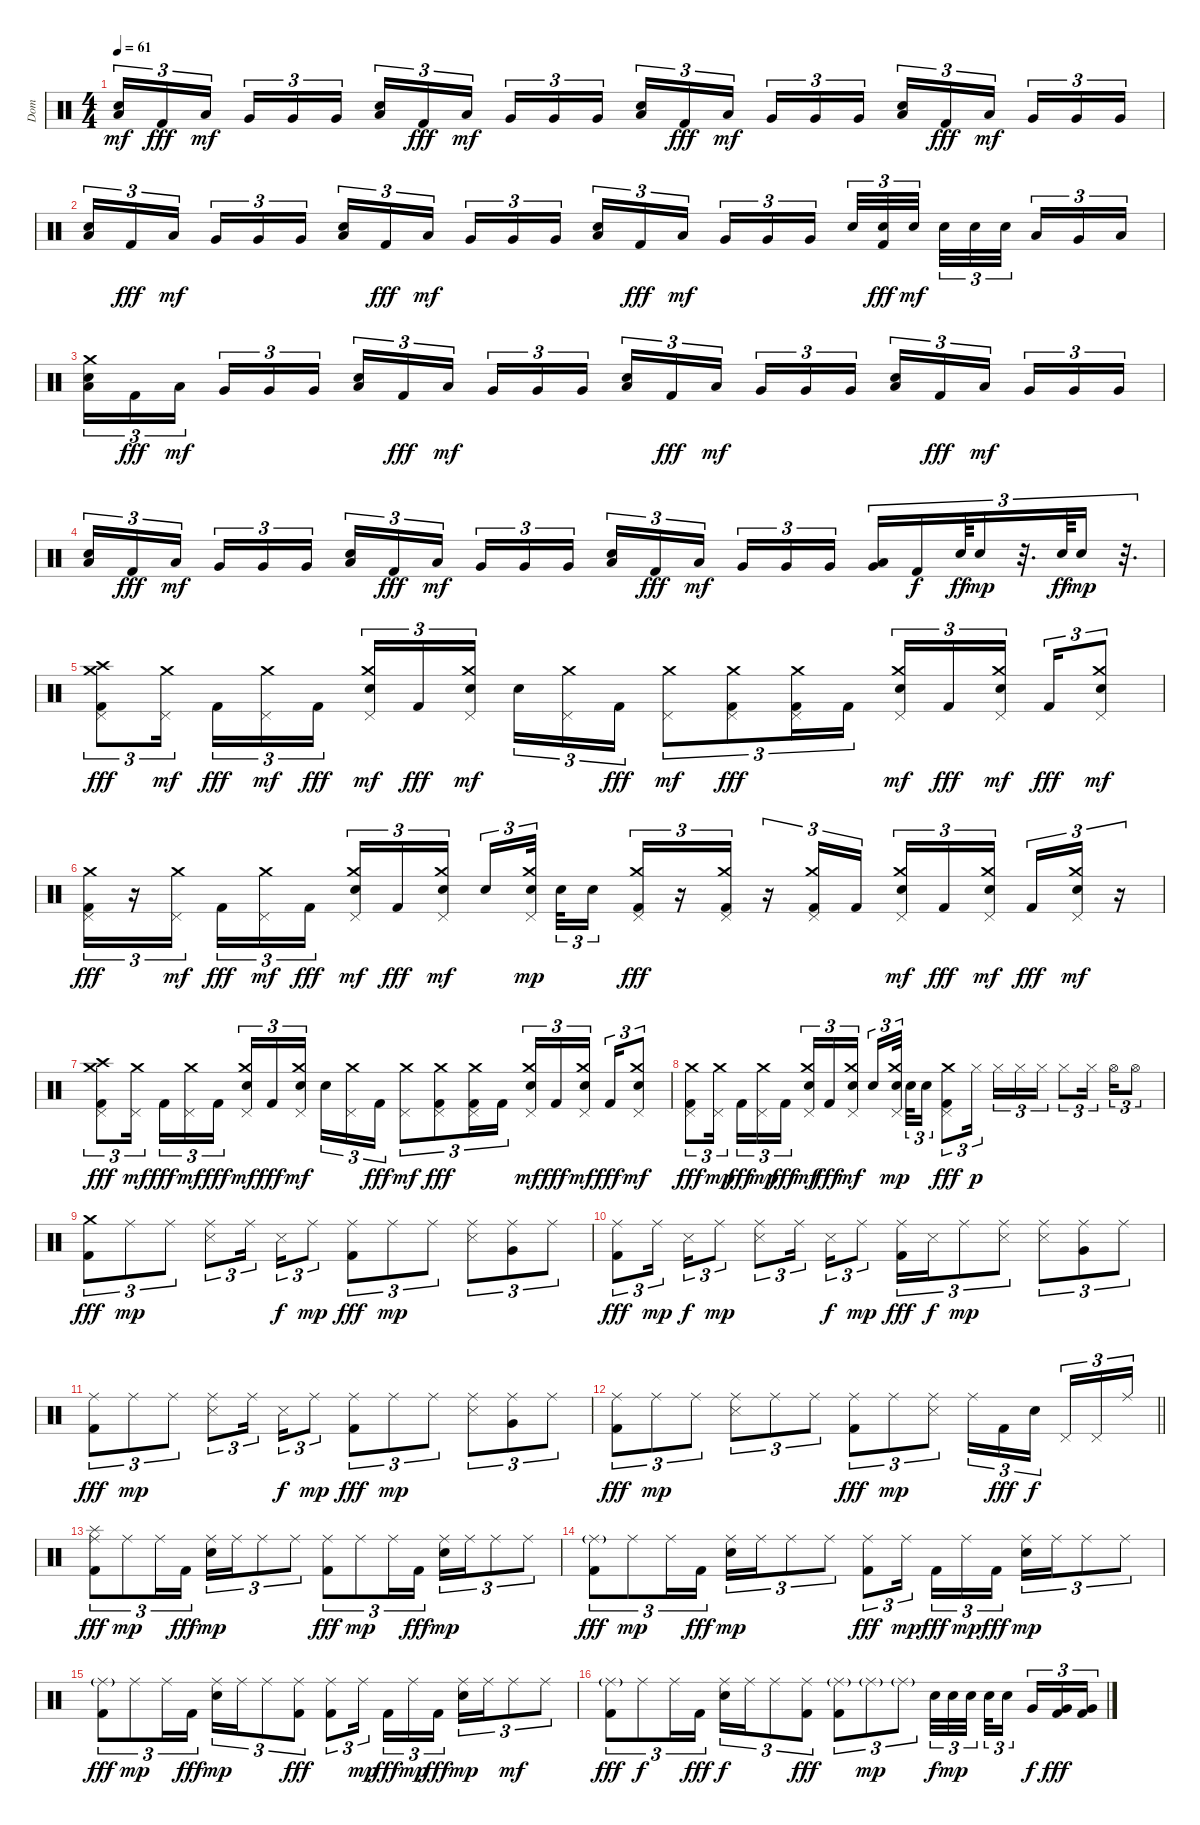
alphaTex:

\track ("Dom" "Dom") {instrument percussion}
\staff {score}
\articulation defaults
\ts (4 4)
\tempo 61
\clef neutral
\ks c
("Electric Snare (hit)" "Low Floor Tom (hit)").16{tu (3 2) dy mf} "Kick (hit) 2".16{tu (3 2) dy fff} "Low Floor Tom (hit)".16{tu (3 2) dy mf beam splitsecondary} "Very Low Tom (hit)".16{tu (3 2)} "Very Low Tom (hit)".16{tu (3 2)} "Very Low Tom (hit)".16{tu (3 2)} ("Electric Snare (hit)" "Low Floor Tom (hit)").16{tu (3 2)} "Kick (hit) 2".16{tu (3 2) dy fff} "Low Floor Tom (hit)".16{tu (3 2) dy mf beam splitsecondary} "Very Low Tom (hit)".16{tu (3 2)} "Very Low Tom (hit)".16{tu (3 2)} "Very Low Tom (hit)".16{tu (3 2)} ("Electric Snare (hit)" "Low Floor Tom (hit)").16{tu (3 2)} "Kick (hit) 2".16{tu (3 2) dy fff} "Low Floor Tom (hit)".16{tu (3 2) dy mf beam splitsecondary} "Very Low Tom (hit)".16{tu (3 2)} "Very Low Tom (hit)".16{tu (3 2)} "Very Low Tom (hit)".16{tu (3 2)} ("Electric Snare (hit)" "Low Floor Tom (hit)").16{tu (3 2)} "Kick (hit) 2".16{tu (3 2) dy fff} "Low Floor Tom (hit)".16{tu (3 2) dy mf beam splitsecondary} "Very Low Tom (hit)".16{tu (3 2)} "Very Low Tom (hit)".16{tu (3 2)} "Very Low Tom (hit)".16{tu (3 2)} |
("Electric Snare (hit)" "Low Floor Tom (hit)").16{tu (3 2)} "Kick (hit) 2".16{tu (3 2) dy fff} "Low Floor Tom (hit)".16{tu (3 2) dy mf beam splitsecondary} "Very Low Tom (hit)".16{tu (3 2)} "Very Low Tom (hit)".16{tu (3 2)} "Very Low Tom (hit)".16{tu (3 2)} ("Electric Snare (hit)" "Low Floor Tom (hit)").16{tu (3 2)} "Kick (hit) 2".16{tu (3 2) dy fff} "Low Floor Tom (hit)".16{tu (3 2) dy mf beam splitsecondary} "Very Low Tom (hit)".16{tu (3 2)} "Very Low Tom (hit)".16{tu (3 2)} "Very Low Tom (hit)".16{tu (3 2)} ("Electric Snare (hit)" "Low Floor Tom (hit)").16{tu (3 2)} "Kick (hit) 2".16{tu (3 2) dy fff} "Low Floor Tom (hit)".16{tu (3 2) dy mf beam splitsecondary} "Very Low Tom (hit)".16{tu (3 2)} "Very Low Tom (hit)".16{tu (3 2)} "Very Low Tom (hit)".16{tu (3 2)} "Electric Snare (hit)".32{tu (3 2)} ("Electric Snare (hit)" "Kick (hit) 2").32{tu (3 2) dy fff} "Electric Snare (hit)".32{tu (3 2) dy mf beam splitsecondary} "Electric Snare (hit)".32{tu (3 2)} "Electric Snare (hit)".32{tu (3 2)} "Electric Snare (hit)".32{tu (3 2) beam splitsecondary} "Low Tom (hit)".16{tu (3 2)} "Very Low Tom (hit)".16{tu (3 2)} "Low Floor Tom (hit)".16{tu (3 2)} |
("Crash medium (hit)" "Electric Snare (hit)" "Low Floor Tom (hit)").16{tu (3 2)} "Kick (hit) 2".16{tu (3 2) dy fff} "Low Floor Tom (hit)".16{tu (3 2) dy mf beam splitsecondary} "Very Low Tom (hit)".16{tu (3 2)} "Very Low Tom (hit)".16{tu (3 2)} "Very Low Tom (hit)".16{tu (3 2)} ("Electric Snare (hit)" "Low Floor Tom (hit)").16{tu (3 2)} "Kick (hit) 2".16{tu (3 2) dy fff} "Low Floor Tom (hit)".16{tu (3 2) dy mf beam splitsecondary} "Very Low Tom (hit)".16{tu (3 2)} "Very Low Tom (hit)".16{tu (3 2)} "Very Low Tom (hit)".16{tu (3 2)} ("Electric Snare (hit)" "Low Floor Tom (hit)").16{tu (3 2)} "Kick (hit) 2".16{tu (3 2) dy fff} "Low Floor Tom (hit)".16{tu (3 2) dy mf beam splitsecondary} "Very Low Tom (hit)".16{tu (3 2)} "Very Low Tom (hit)".16{tu (3 2)} "Very Low Tom (hit)".16{tu (3 2)} ("Electric Snare (hit)" "Low Floor Tom (hit)").16{tu (3 2)} "Kick (hit) 2".16{tu (3 2) dy fff} "Low Floor Tom (hit)".16{tu (3 2) dy mf beam splitsecondary} "Very Low Tom (hit)".16{tu (3 2)} "Very Low Tom (hit)".16{tu (3 2)} "Very Low Tom (hit)".16{tu (3 2)} |
("Electric Snare (hit)" "Low Floor Tom (hit)").16{tu (3 2)} "Kick (hit) 2".16{tu (3 2) dy fff} "Low Floor Tom (hit)".16{tu (3 2) dy mf beam splitsecondary} "Very Low Tom (hit)".16{tu (3 2)} "Very Low Tom (hit)".16{tu (3 2)} "Very Low Tom (hit)".16{tu (3 2)} ("Electric Snare (hit)" "Low Floor Tom (hit)").16{tu (3 2)} "Kick (hit) 2".16{tu (3 2) dy fff} "Low Floor Tom (hit)".16{tu (3 2) dy mf beam splitsecondary} "Very Low Tom (hit)".16{tu (3 2)} "Very Low Tom (hit)".16{tu (3 2)} "Very Low Tom (hit)".16{tu (3 2)} ("Electric Snare (hit)" "Low Floor Tom (hit)").16{tu (3 2)} "Kick (hit) 2".16{tu (3 2) dy fff} "Low Floor Tom (hit)".16{tu (3 2) dy mf beam splitsecondary} "Very Low Tom (hit)".16{tu (3 2)} "Very Low Tom (hit)".16{tu (3 2)} "Very Low Tom (hit)".16{tu (3 2)} ("Low Floor Tom (hit)" "Very Low Tom (hit)").16{tu (3 2)} "Kick (hit) 2".16{tu (3 2) dy f} "Electric Snare (hit)".64{tu (3 2) dy ff} "Electric Snare (hit)".16{tu (3 2) dy mp} r.32{d tu (3 2)} "Electric Snare (hit)".64{tu (3 2) dy ff} "Electric Snare (hit)".16{tu (3 2) dy mp} r.32{d tu (3 2)} |
("Crash high (hit)" "Pedal Hi-Hat (hit)" "Crash medium (hit)" "Kick (hit) 2").8{tu (3 2) dy fff} ("Pedal Hi-Hat (hit)" "Crash medium (hit)").16{tu (3 2) dy mf beam splitsecondary} "Kick (hit) 2".16{tu (3 2) dy fff} ("Pedal Hi-Hat (hit)" "Crash medium (hit)").16{tu (3 2) dy mf} "Kick (hit) 2".16{tu (3 2) dy fff} ("Pedal Hi-Hat (hit)" "Crash medium (hit)" "Electric Snare (hit)").16{tu (3 2) dy mf} "Kick (hit) 2".16{tu (3 2) dy fff} ("Pedal Hi-Hat (hit)" "Crash medium (hit)" "Electric Snare (hit)").16{tu (3 2) dy mf beam splitsecondary} "Electric Snare (hit)".16{tu (3 2)} ("Pedal Hi-Hat (hit)" "Crash medium (hit)").16{tu (3 2)} "Kick (hit) 2".16{tu (3 2) dy fff} ("Pedal Hi-Hat (hit)" "Crash medium (hit)").8{tu (3 2) dy mf} ("Pedal Hi-Hat (hit)" "Crash medium (hit)" "Kick (hit) 2").8{tu (3 2) dy fff} ("Pedal Hi-Hat (hit)" "Crash medium (hit)" "Kick (hit) 2").16{tu (3 2)} "Kick (hit) 2".16{tu (3 2)} ("Pedal Hi-Hat (hit)" "Crash medium (hit)" "Electric Snare (hit)").16{tu (3 2) dy mf} "Kick (hit) 2".16{tu (3 2) dy fff} ("Pedal Hi-Hat (hit)" "Crash medium (hit)" "Electric Snare (hit)").16{tu (3 2) dy mf beam splitsecondary} "Kick (hit) 2".16{tu (3 2) dy fff} ("Pedal Hi-Hat (hit)" "Crash medium (hit)" "Electric Snare (hit)").8{tu (3 2) dy mf} |
("Pedal Hi-Hat (hit)" "Crash medium (hit)" "Kick (hit) 2").16{tu (3 2) dy fff} r.16{tu (3 2)} ("Pedal Hi-Hat (hit)" "Crash medium (hit)").16{tu (3 2) dy mf beam splitsecondary} "Kick (hit) 2".16{tu (3 2) dy fff} ("Pedal Hi-Hat (hit)" "Crash medium (hit)").16{tu (3 2) dy mf} "Kick (hit) 2".16{tu (3 2) dy fff} ("Pedal Hi-Hat (hit)" "Crash medium (hit)" "Electric Snare (hit)").16{tu (3 2) dy mf} "Kick (hit) 2".16{tu (3 2) dy fff} ("Pedal Hi-Hat (hit)" "Crash medium (hit)" "Electric Snare (hit)").16{tu (3 2) dy mf beam splitsecondary} "Electric Snare (hit)".16{tu (3 2)} ("Pedal Hi-Hat (hit)" "Crash medium (hit)" "Electric Snare (hit)").32{tu (3 2) dy mp beam splitsecondary} "Electric Snare (hit)".32{tu (3 2)} "Electric Snare (hit)".16{tu (3 2)} ("Pedal Hi-Hat (hit)" "Crash medium (hit)" "Kick (hit) 2").16{tu (3 2) dy fff} r.16{tu (3 2)} ("Pedal Hi-Hat (hit)" "Crash medium (hit)" "Kick (hit) 2").16{tu (3 2)} r.16{tu (3 2)} ("Pedal Hi-Hat (hit)" "Crash medium (hit)" "Kick (hit) 2").16{tu (3 2)} "Kick (hit) 2".16{tu (3 2)} ("Pedal Hi-Hat (hit)" "Crash medium (hit)" "Electric Snare (hit)").16{tu (3 2) dy mf} "Kick (hit) 2".16{tu (3 2) dy fff} ("Pedal Hi-Hat (hit)" "Crash medium (hit)" "Electric Snare (hit)").16{tu (3 2) dy mf beam splitsecondary} "Kick (hit) 2".16{tu (3 2) dy fff} ("Pedal Hi-Hat (hit)" "Crash medium (hit)" "Electric Snare (hit)").16{tu (3 2) dy mf} r.16{tu (3 2)} |
("Crash high (hit)" "Pedal Hi-Hat (hit)" "Crash medium (hit)" "Kick (hit) 2").8{tu (3 2) dy fff} ("Pedal Hi-Hat (hit)" "Crash medium (hit)").16{tu (3 2) dy mf beam splitsecondary} "Kick (hit) 2".16{tu (3 2) dy fff} ("Pedal Hi-Hat (hit)" "Crash medium (hit)").16{tu (3 2) dy mf} "Kick (hit) 2".16{tu (3 2) dy fff} ("Pedal Hi-Hat (hit)" "Crash medium (hit)" "Electric Snare (hit)").16{tu (3 2) dy mf} "Kick (hit) 2".16{tu (3 2) dy fff} ("Pedal Hi-Hat (hit)" "Crash medium (hit)" "Electric Snare (hit)").16{tu (3 2) dy mf beam splitsecondary} "Electric Snare (hit)".16{tu (3 2)} ("Pedal Hi-Hat (hit)" "Crash medium (hit)").16{tu (3 2)} "Kick (hit) 2".16{tu (3 2) dy fff} ("Pedal Hi-Hat (hit)" "Crash medium (hit)").8{tu (3 2) dy mf} ("Pedal Hi-Hat (hit)" "Crash medium (hit)" "Kick (hit) 2").8{tu (3 2) dy fff} ("Pedal Hi-Hat (hit)" "Crash medium (hit)" "Kick (hit) 2").16{tu (3 2)} "Kick (hit) 2".16{tu (3 2)} ("Pedal Hi-Hat (hit)" "Crash medium (hit)" "Electric Snare (hit)").16{tu (3 2) dy mf} "Kick (hit) 2".16{tu (3 2) dy fff} ("Pedal Hi-Hat (hit)" "Crash medium (hit)" "Electric Snare (hit)").16{tu (3 2) dy mf beam splitsecondary} "Kick (hit) 2".16{tu (3 2) dy fff} ("Pedal Hi-Hat (hit)" "Crash medium (hit)" "Electric Snare (hit)").8{tu (3 2) dy mf} |
("Pedal Hi-Hat (hit)" "Crash medium (hit)" "Kick (hit) 2").8{tu (3 2) dy fff} ("Pedal Hi-Hat (hit)" "Crash medium (hit)").16{tu (3 2) dy mp beam splitsecondary} "Kick (hit) 2".16{tu (3 2) dy fff} ("Pedal Hi-Hat (hit)" "Crash medium (hit)").16{tu (3 2) dy mp} "Kick (hit) 2".16{tu (3 2) dy fff} ("Pedal Hi-Hat (hit)" "Crash medium (hit)" "Electric Snare (hit)").16{tu (3 2) dy mf} "Kick (hit) 2".16{tu (3 2) dy fff} ("Pedal Hi-Hat (hit)" "Crash medium (hit)" "Electric Snare (hit)").16{tu (3 2) dy mf beam splitsecondary} "Electric Snare (hit)".16{tu (3 2)} ("Pedal Hi-Hat (hit)" "Crash medium (hit)" "Electric Snare (hit)").32{tu (3 2) dy mp beam splitsecondary} "Electric Snare (hit)".32{tu (3 2)} "Electric Snare (hit)".16{tu (3 2)} ("Pedal Hi-Hat (hit)" "Crash medium (hit)" "Kick (hit) 2").8{tu (3 2) dy fff} "Hi-Hat (closed)".16{tu (3 2) dy p beam splitsecondary} "Hi-Hat (closed)".16{tu (3 2)} "Hi-Hat (closed)".16{tu (3 2)} "Hi-Hat (closed)".16{tu (3 2)} "Hi-Hat (closed)".8{tu (3 2)} "Hi-Hat (closed)".16{tu (3 2) beam splitsecondary} "Hi-Hat (open)".16{tu (3 2)} "Hi-Hat (open)".8{tu (3 2)} |
("Crash medium (hit)" "Kick (hit) 2").8{tu (3 2) dy fff} "Ride (middle)".8{tu (3 2) dy mp} "Ride (middle)".8{tu (3 2)} ("Ride (middle)" "Snare (side stick) 3").8{tu (3 2)} "Ride (middle)".16{tu (3 2) beam splitsecondary} "Snare (side stick) 3".16{tu (3 2) dy f} "Ride (middle)".8{tu (3 2) dy mp} ("Ride (middle)" "Kick (hit) 2").8{tu (3 2) dy fff} "Ride (middle)".8{tu (3 2) dy mp} "Ride (middle)".8{tu (3 2)} ("Ride (middle)" "Snare (side stick) 3").8{tu (3 2)} ("Ride (middle)" "Very Low Tom (hit)").8{tu (3 2)} "Ride (middle)".8{tu (3 2)} |
("Ride (middle)" "Kick (hit) 2").8{tu (3 2) dy fff} "Ride (middle)".16{tu (3 2) dy mp beam splitsecondary} "Snare (side stick) 3".16{tu (3 2) dy f} "Ride (middle)".8{tu (3 2) dy mp} ("Ride (middle)" "Snare (side stick) 3").8{tu (3 2)} "Ride (middle)".16{tu (3 2) beam splitsecondary} "Snare (side stick) 3".16{tu (3 2) dy f} "Ride (middle)".8{tu (3 2) dy mp} ("Ride (middle)" "Kick (hit) 2").16{tu (3 2) dy fff} "Snare (side stick) 3".16{tu (3 2) dy f} "Ride (middle)".8{tu (3 2) dy mp} ("Ride (middle)" "Snare (side stick) 3").8{tu (3 2)} ("Ride (middle)" "Snare (side stick) 3").8{tu (3 2)} ("Ride (middle)" "Very Low Tom (hit)").8{tu (3 2)} "Ride (middle)".8{tu (3 2)} |
("Ride (middle)" "Kick (hit) 2").8{tu (3 2) dy fff} "Ride (middle)".8{tu (3 2) dy mp} "Ride (middle)".8{tu (3 2)} ("Ride (middle)" "Snare (side stick) 3").8{tu (3 2)} "Ride (middle)".16{tu (3 2) beam splitsecondary} "Snare (side stick) 3".16{tu (3 2) dy f} "Ride (middle)".8{tu (3 2) dy mp} ("Ride (middle)" "Kick (hit) 2").8{tu (3 2) dy fff} "Ride (middle)".8{tu (3 2) dy mp} "Ride (middle)".8{tu (3 2)} ("Ride (middle)" "Snare (side stick) 3").8{tu (3 2)} ("Ride (middle)" "Very Low Tom (hit)").8{tu (3 2)} "Ride (middle)".8{tu (3 2)} |
\barLineRight lightlight
("Ride (middle)" "Kick (hit) 2").8{tu (3 2) dy fff} "Ride (middle)".8{tu (3 2) dy mp} "Ride (middle)".8{tu (3 2)} ("Ride (middle)" "Snare (side stick) 3").8{tu (3 2)} "Ride (middle)".8{tu (3 2)} "Ride (middle)".8{tu (3 2)} ("Ride (middle)" "Kick (hit) 2").8{tu (3 2) dy fff} "Ride (middle)".8{tu (3 2) dy mp} ("Ride (middle)" "Snare (side stick) 3").8{tu (3 2)} "Ride (middle)".16{tu (3 2)} "Kick (hit) 2".16{tu (3 2) dy fff} "Electric Snare (hit)".16{tu (3 2) dy f beam splitsecondary} "Pedal Hi-Hat (hit)".16{tu (3 2)} "Pedal Hi-Hat (hit)".16{tu (3 2)} "Ride (middle)".16{tu (3 2)} |
("Splash (hit)" "Ride (middle)" "Kick (hit) 2").8{tu (3 2) dy fff} "Ride (middle)".8{tu (3 2) dy mp} "Ride (middle)".16{tu (3 2)} "Kick (hit) 2".16{tu (3 2) dy fff} ("Ride (middle)" "Electric Snare (hit)").16{tu (3 2) dy mp} "Ride (middle)".16{tu (3 2)} "Ride (middle)".8{tu (3 2)} "Ride (middle)".8{tu (3 2)} ("Ride (middle)" "Kick (hit) 2").8{tu (3 2) dy fff} "Ride (middle)".8{tu (3 2) dy mp} "Ride (middle)".16{tu (3 2)} "Kick (hit) 2".16{tu (3 2) dy fff} ("Ride (middle)" "Electric Snare (hit)").16{tu (3 2) dy mp} "Ride (middle)".16{tu (3 2)} "Ride (middle)".8{tu (3 2)} "Ride (middle)".8{tu (3 2)} |
("Ride (middle)"{g} "Kick (hit) 2").8{tu (3 2) dy fff} "Ride (middle)".8{tu (3 2) dy mp} "Ride (middle)".16{tu (3 2)} "Kick (hit) 2".16{tu (3 2) dy fff} ("Ride (middle)" "Electric Snare (hit)").16{tu (3 2) dy mp} "Ride (middle)".16{tu (3 2)} "Ride (middle)".8{tu (3 2)} "Ride (middle)".8{tu (3 2)} ("Ride (middle)" "Kick (hit) 2").8{tu (3 2) dy fff} "Ride (middle)".16{tu (3 2) dy mp beam splitsecondary} "Kick (hit) 2".16{tu (3 2) dy fff} "Ride (middle)".16{tu (3 2) dy mp} "Kick (hit) 2".16{tu (3 2) dy fff} ("Ride (middle)" "Electric Snare (hit)").16{tu (3 2) dy mp} "Ride (middle)".16{tu (3 2)} "Ride (middle)".8{tu (3 2)} "Ride (middle)".8{tu (3 2)} |
("Ride (middle)"{g} "Kick (hit) 2").8{tu (3 2) dy fff} "Ride (middle)".8{tu (3 2) dy mp} "Ride (middle)".16{tu (3 2)} "Kick (hit) 2".16{tu (3 2) dy fff} ("Ride (middle)" "Electric Snare (hit)").16{tu (3 2) dy mp} "Ride (middle)".16{tu (3 2)} "Ride (middle)".8{tu (3 2)} ("Ride (middle)" "Kick (hit) 2").8{tu (3 2) dy fff} ("Ride (middle)" "Kick (hit) 2").8{tu (3 2)} "Ride (middle)".16{tu (3 2) dy mp beam splitsecondary} "Kick (hit) 2".16{tu (3 2) dy fff} "Ride (middle)".16{tu (3 2) dy mp} "Kick (hit) 2".16{tu (3 2) dy fff} ("Ride (middle)" "Electric Snare (hit)").16{tu (3 2) dy mp} "Ride (middle)".16{tu (3 2)} "Ride (middle)".8{tu (3 2) dy mf} "Ride (middle)".8{tu (3 2)} |
("Ride (middle)"{g} "Kick (hit) 2").8{tu (3 2) dy fff} "Ride (middle)".8{tu (3 2) dy f} "Ride (middle)".16{tu (3 2)} "Kick (hit) 2".16{tu (3 2) dy fff} ("Ride (middle)" "Electric Snare (hit)").16{tu (3 2) dy f} "Ride (middle)".16{tu (3 2)} "Ride (middle)".8{tu (3 2)} ("Ride (middle)" "Kick (hit) 2").8{tu (3 2) dy fff} ("Ride (middle)"{g} "Kick (hit) 2").8{tu (3 2)} "Ride (middle)"{g}.8{tu (3 2) dy mp} "Ride (middle)"{g}.8{tu (3 2)} "Electric Snare (hit)".32{tu (3 2) dy f} "Electric Snare (hit)".32{tu (3 2) dy mp} "Electric Snare (hit)".32{tu (3 2) beam splitsecondary} "Electric Snare (hit)".32{tu (3 2)} "Electric Snare (hit)".16{tu (3 2) beam splitsecondary} "Very Low Tom (hit)".16{tu (3 2) dy f} ("Very Low Tom (hit)" "Kick (hit) 2").16{tu (3 2) dy fff} ("Very Low Tom (hit)" "Kick (hit) 2").16{tu (3 2)}
